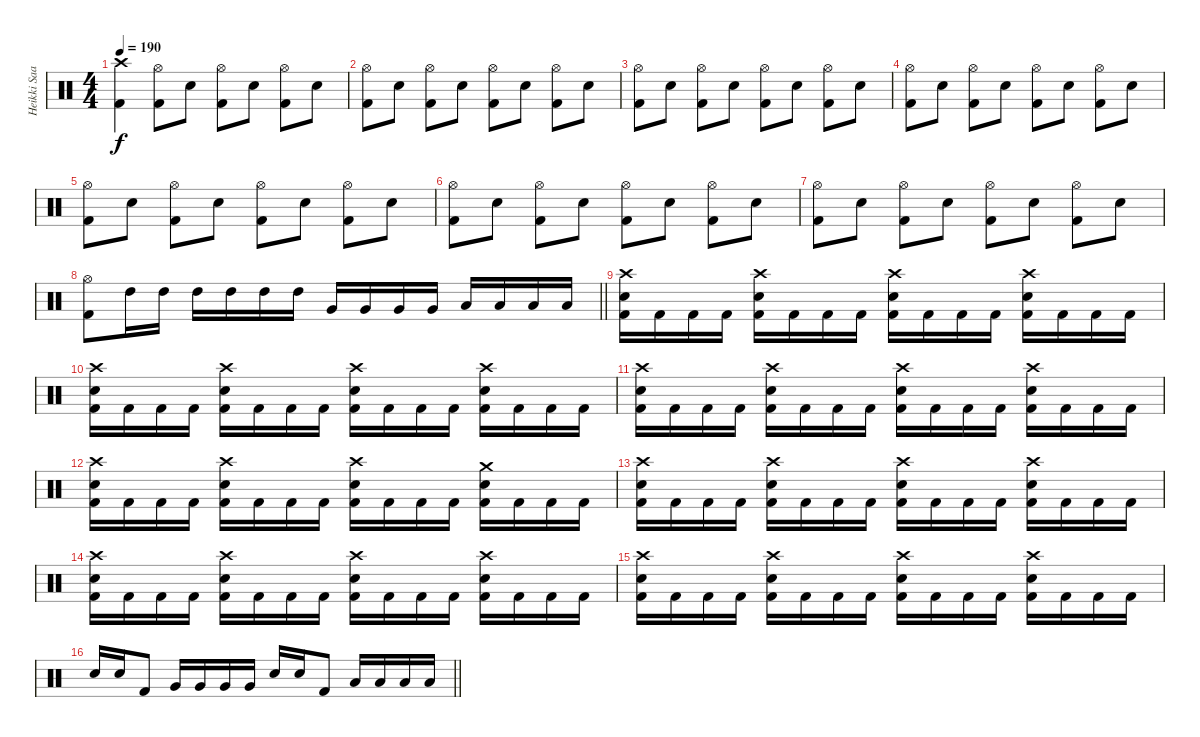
\track ("Heikki Saari" "Heikki Saa") {instrument percussion}
\staff {score}
\articulation defaults
\ts (4 4)
\tempo 190
\clef neutral
\ks c
("Crash high (hit)" "Kick (hit) 2").4{dy f} ("Hi-Hat (open)" "Kick (hit) 2").8 "Snare (hit) 2".8 ("Hi-Hat (open)" "Kick (hit) 2").8 "Snare (hit) 2".8 ("Hi-Hat (open)" "Kick (hit) 2").8 "Snare (hit) 2".8 |
("Hi-Hat (open)" "Kick (hit) 2").8 "Snare (hit) 2".8 ("Hi-Hat (open)" "Kick (hit) 2").8 "Snare (hit) 2".8 ("Hi-Hat (open)" "Kick (hit) 2").8 "Snare (hit) 2".8 ("Hi-Hat (open)" "Kick (hit) 2").8 "Snare (hit) 2".8 |
("Hi-Hat (open)" "Kick (hit) 2").8 "Snare (hit) 2".8 ("Hi-Hat (open)" "Kick (hit) 2").8 "Snare (hit) 2".8 ("Hi-Hat (open)" "Kick (hit) 2").8 "Snare (hit) 2".8 ("Hi-Hat (open)" "Kick (hit) 2").8 "Snare (hit) 2".8 |
("Hi-Hat (open)" "Kick (hit) 2").8 "Snare (hit) 2".8 ("Hi-Hat (open)" "Kick (hit) 2").8 "Snare (hit) 2".8 ("Hi-Hat (open)" "Kick (hit) 2").8 "Snare (hit) 2".8 ("Hi-Hat (open)" "Kick (hit) 2").8 "Snare (hit) 2".8 |
("Hi-Hat (open)" "Kick (hit) 2").8 "Snare (hit) 2".8 ("Hi-Hat (open)" "Kick (hit) 2").8 "Snare (hit) 2".8 ("Hi-Hat (open)" "Kick (hit) 2").8 "Snare (hit) 2".8 ("Hi-Hat (open)" "Kick (hit) 2").8 "Snare (hit) 2".8 |
("Hi-Hat (open)" "Kick (hit) 2").8 "Snare (hit) 2".8 ("Hi-Hat (open)" "Kick (hit) 2").8 "Snare (hit) 2".8 ("Hi-Hat (open)" "Kick (hit) 2").8 "Snare (hit) 2".8 ("Hi-Hat (open)" "Kick (hit) 2").8 "Snare (hit) 2".8 |
("Hi-Hat (open)" "Kick (hit) 2").8 "Snare (hit) 2".8 ("Hi-Hat (open)" "Kick (hit) 2").8 "Snare (hit) 2".8 ("Hi-Hat (open)" "Kick (hit) 2").8 "Snare (hit) 2".8 ("Hi-Hat (open)" "Kick (hit) 2").8 "Snare (hit) 2".8 |
\barLineRight lightlight
("Hi-Hat (open)" "Kick (hit) 2").8 "High Tom (hit)".16 "High Tom (hit)".16 "High Tom (hit)".16 "High Tom (hit)".16 "High Tom (hit)".16 "High Tom (hit)".16 "Very Low Tom (hit)".16 "Very Low Tom (hit)".16 "Very Low Tom (hit)".16 "Very Low Tom (hit)".16 "Low Floor Tom (hit)".16 "Low Floor Tom (hit)".16 "Low Floor Tom (hit)".16 "Low Floor Tom (hit)".16 |
("Crash high (hit)" "Snare (hit) 2" "Kick (hit) 2").16 "Kick (hit) 2".16 "Kick (hit) 2".16 "Kick (hit) 2".16 ("Crash high (hit)" "Snare (hit) 2" "Kick (hit) 2").16 "Kick (hit) 2".16 "Kick (hit) 2".16 "Kick (hit) 2".16 ("Crash high (hit)" "Snare (hit) 2" "Kick (hit) 2").16 "Kick (hit) 2".16 "Kick (hit) 2".16 "Kick (hit) 2".16 ("Crash high (hit)" "Snare (hit) 2" "Kick (hit) 2").16 "Kick (hit) 2".16 "Kick (hit) 2".16 "Kick (hit) 2".16 |
("Crash high (hit)" "Snare (hit) 2" "Kick (hit) 2").16 "Kick (hit) 2".16 "Kick (hit) 2".16 "Kick (hit) 2".16 ("Crash high (hit)" "Snare (hit) 2" "Kick (hit) 2").16 "Kick (hit) 2".16 "Kick (hit) 2".16 "Kick (hit) 2".16 ("Crash high (hit)" "Snare (hit) 2" "Kick (hit) 2").16 "Kick (hit) 2".16 "Kick (hit) 2".16 "Kick (hit) 2".16 ("Crash high (hit)" "Snare (hit) 2" "Kick (hit) 2").16 "Kick (hit) 2".16 "Kick (hit) 2".16 "Kick (hit) 2".16 |
("Crash high (hit)" "Snare (hit) 2" "Kick (hit) 2").16 "Kick (hit) 2".16 "Kick (hit) 2".16 "Kick (hit) 2".16 ("Crash high (hit)" "Snare (hit) 2" "Kick (hit) 2").16 "Kick (hit) 2".16 "Kick (hit) 2".16 "Kick (hit) 2".16 ("Crash high (hit)" "Snare (hit) 2" "Kick (hit) 2").16 "Kick (hit) 2".16 "Kick (hit) 2".16 "Kick (hit) 2".16 ("Crash high (hit)" "Snare (hit) 2" "Kick (hit) 2").16 "Kick (hit) 2".16 "Kick (hit) 2".16 "Kick (hit) 2".16 |
("Crash high (hit)" "Snare (hit) 2" "Kick (hit) 2").16 "Kick (hit) 2".16 "Kick (hit) 2".16 "Kick (hit) 2".16 ("Crash high (hit)" "Snare (hit) 2" "Kick (hit) 2").16 "Kick (hit) 2".16 "Kick (hit) 2".16 "Kick (hit) 2".16 ("Crash high (hit)" "Snare (hit) 2" "Kick (hit) 2").16 "Kick (hit) 2".16 "Kick (hit) 2".16 "Kick (hit) 2".16 ("Crash medium (hit)" "Snare (hit) 2" "Kick (hit) 2").16 "Kick (hit) 2".16 "Kick (hit) 2".16 "Kick (hit) 2".16 |
("Crash high (hit)" "Snare (hit) 2" "Kick (hit) 2").16 "Kick (hit) 2".16 "Kick (hit) 2".16 "Kick (hit) 2".16 ("Crash high (hit)" "Snare (hit) 2" "Kick (hit) 2").16 "Kick (hit) 2".16 "Kick (hit) 2".16 "Kick (hit) 2".16 ("Crash high (hit)" "Snare (hit) 2" "Kick (hit) 2").16 "Kick (hit) 2".16 "Kick (hit) 2".16 "Kick (hit) 2".16 ("Crash high (hit)" "Snare (hit) 2" "Kick (hit) 2").16 "Kick (hit) 2".16 "Kick (hit) 2".16 "Kick (hit) 2".16 |
("Crash high (hit)" "Snare (hit) 2" "Kick (hit) 2").16 "Kick (hit) 2".16 "Kick (hit) 2".16 "Kick (hit) 2".16 ("Crash high (hit)" "Snare (hit) 2" "Kick (hit) 2").16 "Kick (hit) 2".16 "Kick (hit) 2".16 "Kick (hit) 2".16 ("Crash high (hit)" "Snare (hit) 2" "Kick (hit) 2").16 "Kick (hit) 2".16 "Kick (hit) 2".16 "Kick (hit) 2".16 ("Crash high (hit)" "Snare (hit) 2" "Kick (hit) 2").16 "Kick (hit) 2".16 "Kick (hit) 2".16 "Kick (hit) 2".16 |
("Crash high (hit)" "Snare (hit) 2" "Kick (hit) 2").16 "Kick (hit) 2".16 "Kick (hit) 2".16 "Kick (hit) 2".16 ("Crash high (hit)" "Snare (hit) 2" "Kick (hit) 2").16 "Kick (hit) 2".16 "Kick (hit) 2".16 "Kick (hit) 2".16 ("Crash high (hit)" "Snare (hit) 2" "Kick (hit) 2").16 "Kick (hit) 2".16 "Kick (hit) 2".16 "Kick (hit) 2".16 ("Crash high (hit)" "Snare (hit) 2" "Kick (hit) 2").16 "Kick (hit) 2".16 "Kick (hit) 2".16 "Kick (hit) 2".16 |
\barLineRight lightlight "Snare (hit) 2".16 "Snare (hit) 2".16 "Kick (hit) 2".8 "Very Low Tom (hit)".16 "Very Low Tom (hit)".16 "Very Low Tom (hit)".16 "Very Low Tom (hit)".16 "Snare (hit) 2".16 "Snare (hit) 2".16 "Kick (hit) 2".8 "Low Floor Tom (hit)".16 "Low Floor Tom (hit)".16 "Low Floor Tom (hit)".16 "Low Floor Tom (hit)".16
